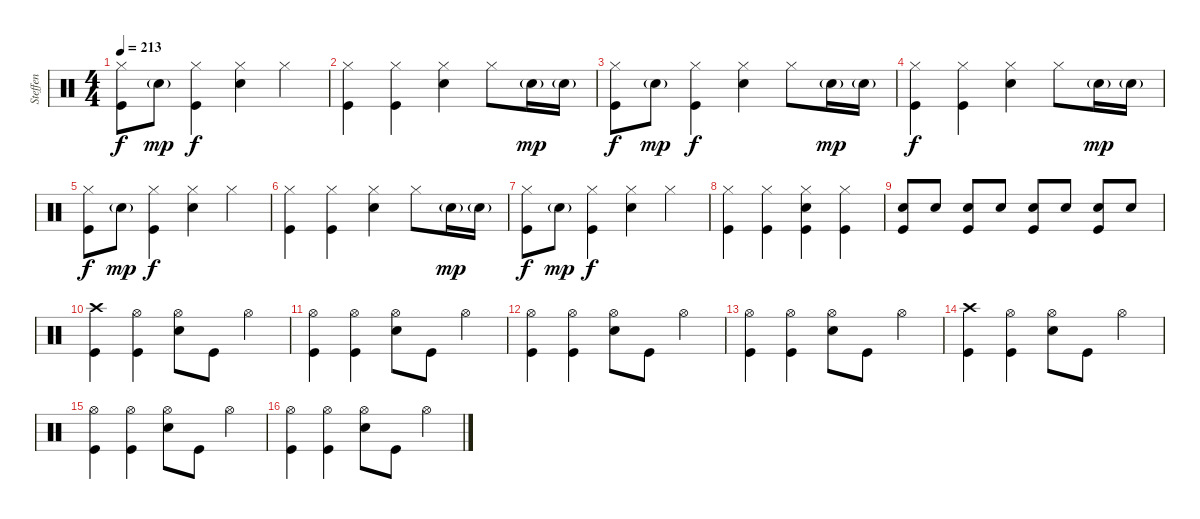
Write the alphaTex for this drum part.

\track ("Steffen" "Steffen") {instrument percussion}
\staff {score}
\articulation defaults
\ts (4 4)
\tempo 213
\clef neutral
\ks c
("Hi-Hat (closed)" "Kick (hit)").8{dy f} "Snare (hit) 2"{g}.8{dy mp} ("Hi-Hat (closed)" "Kick (hit)").4{dy f} ("Hi-Hat (closed)" "Snare (hit) 2").4 "Hi-Hat (closed)".4 |
("Hi-Hat (closed)" "Kick (hit)").4 ("Hi-Hat (closed)" "Kick (hit)").4 ("Hi-Hat (closed)" "Snare (hit) 2").4 "Hi-Hat (closed)".8 "Snare (hit) 2"{g}.16{dy mp} "Snare (hit) 2"{g}.16 |
("Hi-Hat (closed)" "Kick (hit)").8{dy f} "Snare (hit) 2"{g}.8{dy mp} ("Hi-Hat (closed)" "Kick (hit)").4{dy f} ("Hi-Hat (closed)" "Snare (hit) 2").4 "Hi-Hat (closed)".8 "Snare (hit) 2"{g}.16{dy mp} "Snare (hit) 2"{g}.16 |
("Hi-Hat (closed)" "Kick (hit)").4{dy f} ("Hi-Hat (closed)" "Kick (hit)").4 ("Hi-Hat (closed)" "Snare (hit) 2").4 "Hi-Hat (closed)".8 "Snare (hit) 2"{g}.16{dy mp} "Snare (hit) 2"{g}.16 |
("Hi-Hat (closed)" "Kick (hit)").8{dy f} "Snare (hit) 2"{g}.8{dy mp} ("Hi-Hat (closed)" "Kick (hit)").4{dy f} ("Hi-Hat (closed)" "Snare (hit) 2").4 "Hi-Hat (closed)".4 |
("Hi-Hat (closed)" "Kick (hit)").4 ("Hi-Hat (closed)" "Kick (hit)").4 ("Hi-Hat (closed)" "Snare (hit) 2").4 "Hi-Hat (closed)".8 "Snare (hit) 2"{g}.16{dy mp} "Snare (hit) 2"{g}.16 |
("Hi-Hat (closed)" "Kick (hit)").8{dy f} "Snare (hit) 2"{g}.8{dy mp} ("Hi-Hat (closed)" "Kick (hit)").4{dy f} ("Hi-Hat (closed)" "Snare (hit) 2").4 "Hi-Hat (closed)".4 |
("Hi-Hat (closed)" "Kick (hit)").4 ("Hi-Hat (closed)" "Kick (hit)").4 ("Hi-Hat (closed)" "Snare (hit) 2" "Kick (hit)").4 ("Hi-Hat (closed)" "Kick (hit)").4 |
("Snare (hit) 2" "Kick (hit)").8 "Snare (hit) 2".8 ("Snare (hit) 2" "Kick (hit)").8 "Snare (hit) 2".8 ("Snare (hit) 2" "Kick (hit)").8 "Snare (hit) 2".8 ("Snare (hit) 2" "Kick (hit)").8 "Snare (hit) 2".8 |
("Crash high (hit)" "Kick (hit)").4 ("Hi-Hat (open)" "Kick (hit)").4 ("Hi-Hat (open)" "Snare (hit) 2").8 "Kick (hit)".8 "Hi-Hat (open)".4 |
("Hi-Hat (open)" "Kick (hit)").4 ("Hi-Hat (open)" "Kick (hit)").4 ("Hi-Hat (open)" "Snare (hit) 2").8 "Kick (hit)".8 "Hi-Hat (open)".4 |
("Hi-Hat (open)" "Kick (hit)").4 ("Hi-Hat (open)" "Kick (hit)").4 ("Hi-Hat (open)" "Snare (hit) 2").8 "Kick (hit)".8 "Hi-Hat (open)".4 |
("Hi-Hat (open)" "Kick (hit)").4 ("Hi-Hat (open)" "Kick (hit)").4 ("Hi-Hat (open)" "Snare (hit) 2").8 "Kick (hit)".8 "Hi-Hat (open)".4 |
("Crash high (hit)" "Kick (hit)").4 ("Hi-Hat (open)" "Kick (hit)").4 ("Hi-Hat (open)" "Snare (hit) 2").8 "Kick (hit)".8 "Hi-Hat (open)".4 |
("Hi-Hat (open)" "Kick (hit)").4 ("Hi-Hat (open)" "Kick (hit)").4 ("Hi-Hat (open)" "Snare (hit) 2").8 "Kick (hit)".8 "Hi-Hat (open)".4 |
("Hi-Hat (open)" "Kick (hit)").4 ("Hi-Hat (open)" "Kick (hit)").4 ("Hi-Hat (open)" "Snare (hit) 2").8 "Kick (hit)".8 "Hi-Hat (open)".4
